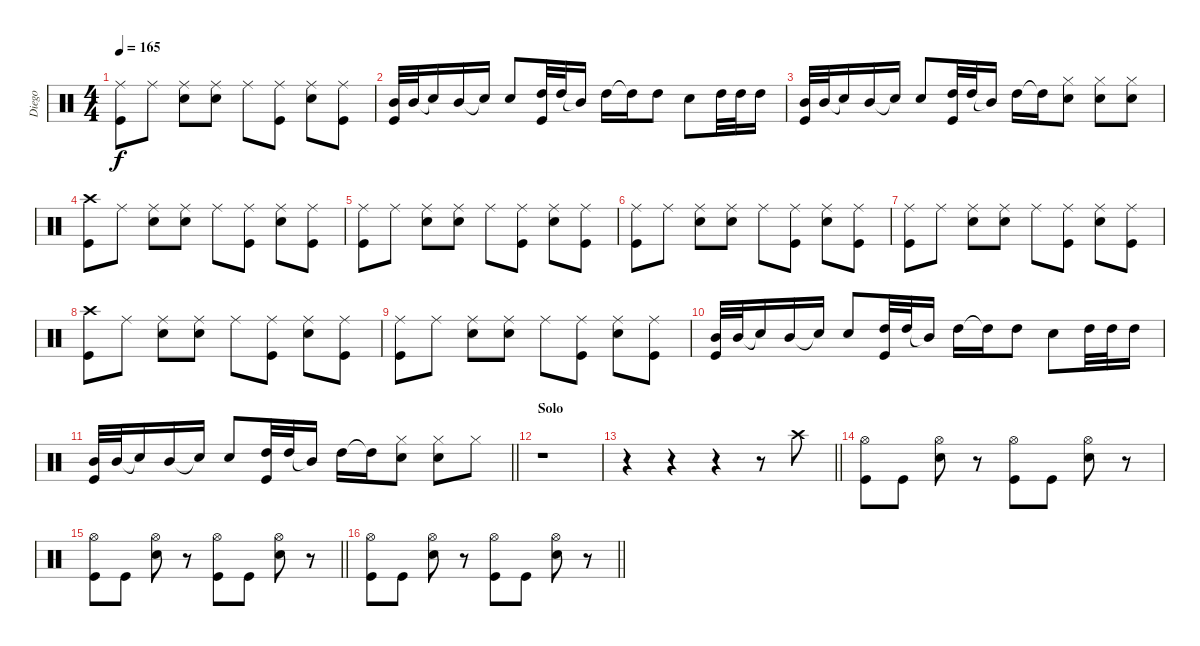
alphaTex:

\track ("Diego" "Diego") {instrument percussion}
\staff {score}
\articulation defaults
\ts (4 4)
\tempo 165
\clef neutral
\ks c
("Ride (middle)" "Kick (hit)").8{dy f} "Ride (middle)".8 ("Ride (middle)" "Snare (hit) 2").8 ("Ride (middle)" "Snare (hit) 2").8 "Ride (middle)".8 ("Ride (middle)" "Kick (hit)").8 ("Ride (middle)" "Snare (hit) 2").8 ("Ride (middle)" "Kick (hit)").8 |
("Mid Tom (hit)" "Kick (hit)").32 "Mid Tom (hit)".32 "Snare (hit)"{t}.16 "Mid Tom (hit)".16 "Snare (hit) 2"{t}.16 "Snare (hit) 2".8 ("High Tom (hit)" "Kick (hit)").32 "High Tom (hit)".32 "Mid Tom (hit)"{t}.16 "High Tom (hit)".16 "High Tom (hit)"{t}.16 "High Tom (hit)".8 "Snare (hit) 2".8 "High Tom (hit)".32 "High Tom (hit)".32 "High Tom (hit)".16 |
("Mid Tom (hit)" "Kick (hit)").32 "Mid Tom (hit)".32 "Snare (hit)"{t}.16 "Mid Tom (hit)".16 "Snare (hit) 2"{t}.16 "Snare (hit) 2".8 ("High Tom (hit)" "Kick (hit)").32 "High Tom (hit)".32 "Mid Tom (hit)"{t}.16 "High Tom (hit)".16 "High Tom (hit)"{t}.16 ("Hi-Hat (closed)" "Snare (hit) 2").8 ("Hi-Hat (closed)" "Snare (hit) 2").8 ("Hi-Hat (closed)" "Snare (hit) 2").8 |
("Crash high (hit)" "Kick (hit)").8 "Ride (middle)".8 ("Ride (middle)" "Snare (hit) 2").8 ("Ride (middle)" "Snare (hit) 2").8 "Ride (middle)".8 ("Ride (middle)" "Kick (hit)").8 ("Ride (middle)" "Snare (hit) 2").8 ("Ride (middle)" "Kick (hit)").8 |
("Ride (middle)" "Kick (hit)").8 "Ride (middle)".8 ("Ride (middle)" "Snare (hit) 2").8 ("Ride (middle)" "Snare (hit) 2").8 "Ride (middle)".8 ("Ride (middle)" "Kick (hit)").8 ("Ride (middle)" "Snare (hit) 2").8 ("Ride (middle)" "Kick (hit)").8 |
("Ride (middle)" "Kick (hit)").8 "Ride (middle)".8 ("Ride (middle)" "Snare (hit) 2").8 ("Ride (middle)" "Snare (hit) 2").8 "Ride (middle)".8 ("Ride (middle)" "Kick (hit)").8 ("Ride (middle)" "Snare (hit) 2").8 ("Ride (middle)" "Kick (hit)").8 |
("Ride (middle)" "Kick (hit)").8 "Ride (middle)".8 ("Ride (middle)" "Snare (hit) 2").8 ("Ride (middle)" "Snare (hit) 2").8 "Ride (middle)".8 ("Ride (middle)" "Kick (hit)").8 ("Ride (middle)" "Snare (hit) 2").8 ("Ride (middle)" "Kick (hit)").8 |
("Crash high (hit)" "Kick (hit)").8 "Ride (middle)".8 ("Ride (middle)" "Snare (hit) 2").8 ("Ride (middle)" "Snare (hit) 2").8 "Ride (middle)".8 ("Ride (middle)" "Kick (hit)").8 ("Ride (middle)" "Snare (hit) 2").8 ("Ride (middle)" "Kick (hit)").8 |
("Ride (middle)" "Kick (hit)").8 "Ride (middle)".8 ("Ride (middle)" "Snare (hit) 2").8 ("Ride (middle)" "Snare (hit) 2").8 "Ride (middle)".8 ("Ride (middle)" "Kick (hit)").8 ("Ride (middle)" "Snare (hit) 2").8 ("Ride (middle)" "Kick (hit)").8 |
("Mid Tom (hit)" "Kick (hit)").32 "Mid Tom (hit)".32 "Snare (hit)"{t}.16 "Mid Tom (hit)".16 "Snare (hit) 2"{t}.16 "Snare (hit) 2".8 ("High Tom (hit)" "Kick (hit)").32 "High Tom (hit)".32 "Mid Tom (hit)"{t}.16 "High Tom (hit)".16 "High Tom (hit)"{t}.16 "High Tom (hit)".8 "Snare (hit) 2".8 "High Tom (hit)".32 "High Tom (hit)".32 "High Tom (hit)".16 |
\barLineRight lightlight
("Mid Tom (hit)" "Kick (hit)").32 "Mid Tom (hit)".32 "Snare (hit)"{t}.16 "Mid Tom (hit)".16 "Snare (hit) 2"{t}.16 "Snare (hit) 2".8 ("High Tom (hit)" "Kick (hit)").32 "High Tom (hit)".32 "Mid Tom (hit)"{t}.16 "High Tom (hit)".16 "High Tom (hit)"{t}.16 ("Hi-Hat (closed)" "Snare (hit) 2").8 ("Hi-Hat (closed)" "Snare (hit) 2").8 "Hi-Hat (closed)".8 |
\section ("" "Solo")
r.1 |
\barLineRight lightlight
r.4 r.4 r.4 r.8 "Crash high (hit)".8 |
("Hi-Hat (open)" "Kick (hit)").8 "Kick (hit)".8 ("Hi-Hat (open)" "Snare (hit) 2").8 r.8 ("Hi-Hat (open)" "Kick (hit)").8 "Kick (hit)".8 ("Hi-Hat (open)" "Snare (hit) 2").8 r.8 |
\barLineRight lightlight
("Hi-Hat (open)" "Kick (hit)").8 "Kick (hit)".8 ("Hi-Hat (open)" "Snare (hit) 2").8 r.8 ("Hi-Hat (open)" "Kick (hit)").8 "Kick (hit)".8 ("Hi-Hat (open)" "Snare (hit) 2").8 r.8 |
\barLineRight lightlight
("Hi-Hat (open)" "Kick (hit)").8 "Kick (hit)".8 ("Hi-Hat (open)" "Snare (hit) 2").8 r.8 ("Hi-Hat (open)" "Kick (hit)").8 "Kick (hit)".8 ("Hi-Hat (open)" "Snare (hit) 2").8 r.8
